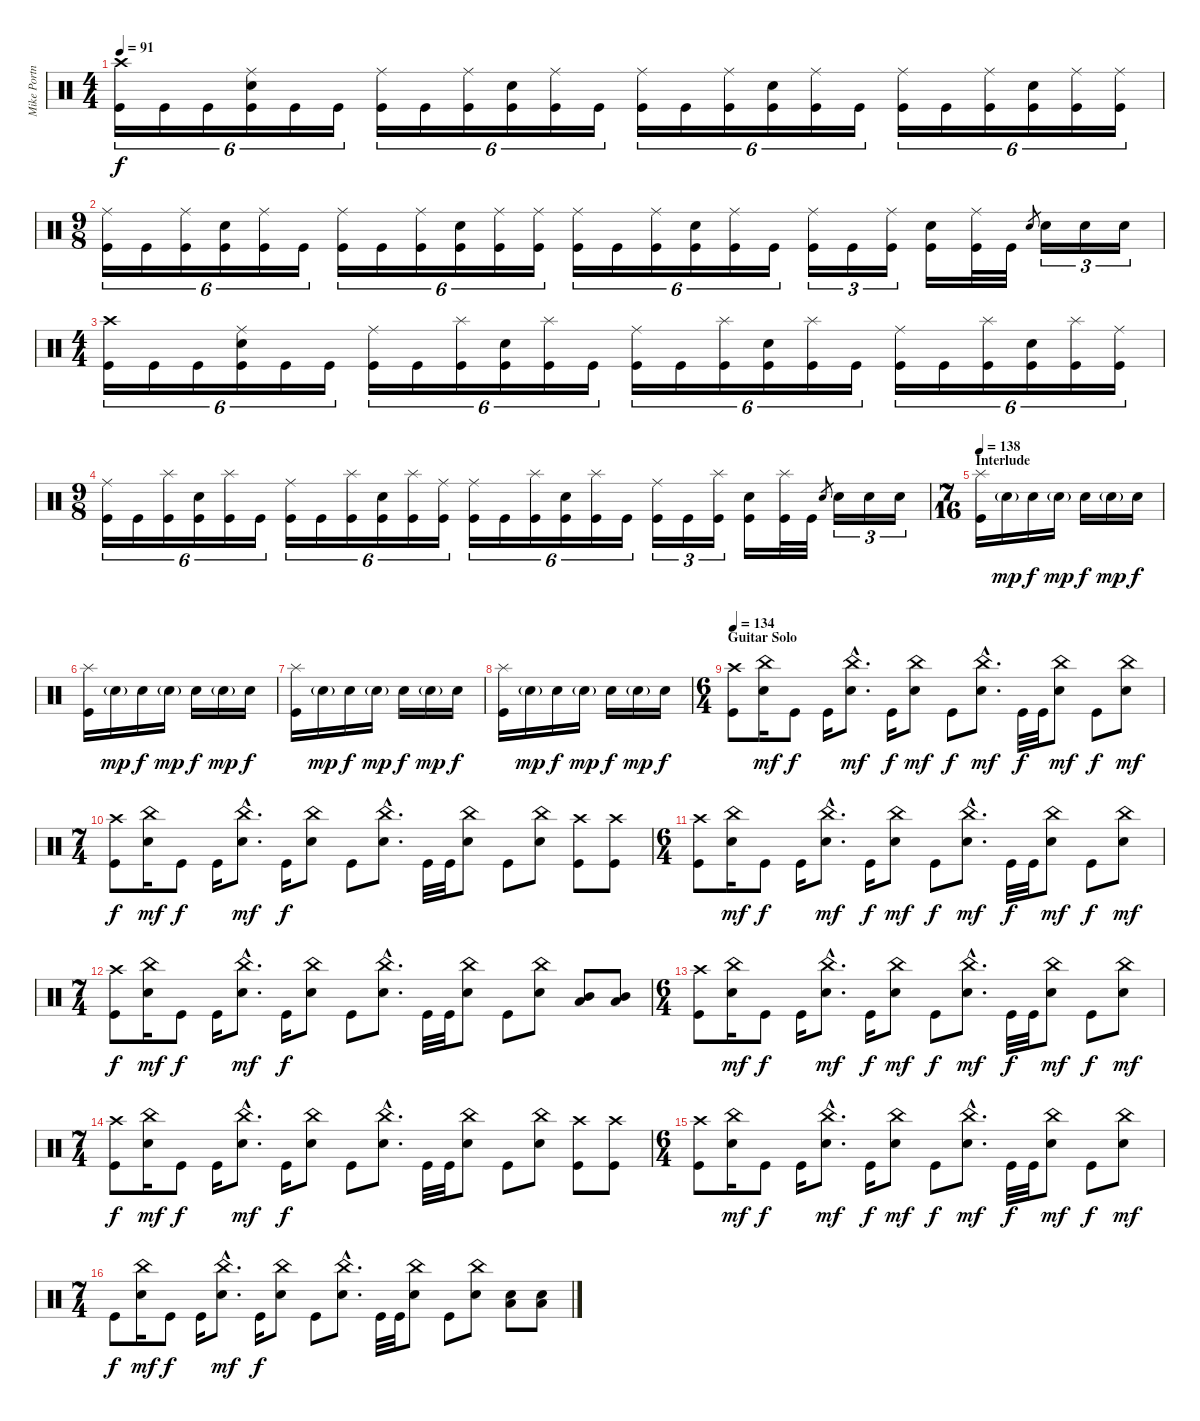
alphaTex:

\track ("Mike Portnoy" "Mike Portn") {instrument percussion}
\staff {score}
\articulation defaults
\ts (4 4)
\tempo 91
\clef neutral
\ks c
("Crash high (hit)" "Kick (hit)").16{tu (6 4) dy f} "Kick (hit)".16{tu (6 4)} "Kick (hit)".16{tu (6 4)} ("Ride (middle)" "Electric Snare (hit)" "Kick (hit)").16{tu (6 4)} "Kick (hit)".16{tu (6 4)} "Kick (hit)".16{tu (6 4)} ("Ride (middle)" "Kick (hit)").16{tu (6 4)} "Kick (hit)".16{tu (6 4)} ("Ride (middle)" "Kick (hit)").16{tu (6 4)} ("Electric Snare (hit)" "Kick (hit)").16{tu (6 4)} ("Ride (middle)" "Kick (hit)").16{tu (6 4)} "Kick (hit)".16{tu (6 4)} ("Ride (middle)" "Kick (hit)").16{tu (6 4)} "Kick (hit)".16{tu (6 4)} ("Ride (middle)" "Kick (hit)").16{tu (6 4)} ("Electric Snare (hit)" "Kick (hit)").16{tu (6 4)} ("Ride (middle)" "Kick (hit)").16{tu (6 4)} "Kick (hit)".16{tu (6 4)} ("Ride (middle)" "Kick (hit)").16{tu (6 4)} "Kick (hit)".16{tu (6 4)} ("Ride (middle)" "Kick (hit)").16{tu (6 4)} ("Electric Snare (hit)" "Kick (hit)").16{tu (6 4)} ("Ride (middle)" "Kick (hit)").16{tu (6 4)} ("Ride (middle)" "Kick (hit)").16{tu (6 4)} |
\ts (9 8)
("Ride (middle)" "Kick (hit)").16{tu (6 4)} "Kick (hit)".16{tu (6 4)} ("Ride (middle)" "Kick (hit)").16{tu (6 4)} ("Electric Snare (hit)" "Kick (hit)").16{tu (6 4)} ("Ride (middle)" "Kick (hit)").16{tu (6 4)} "Kick (hit)".16{tu (6 4)} ("Ride (middle)" "Kick (hit)").16{tu (6 4)} "Kick (hit)".16{tu (6 4)} ("Ride (middle)" "Kick (hit)").16{tu (6 4)} ("Electric Snare (hit)" "Kick (hit)").16{tu (6 4)} ("Ride (middle)" "Kick (hit)").16{tu (6 4)} ("Ride (middle)" "Kick (hit)").16{tu (6 4)} ("Ride (middle)" "Kick (hit)").16{tu (6 4)} "Kick (hit)".16{tu (6 4)} ("Ride (middle)" "Kick (hit)").16{tu (6 4)} ("Electric Snare (hit)" "Kick (hit)").16{tu (6 4)} ("Ride (middle)" "Kick (hit)").16{tu (6 4)} "Kick (hit)".16{tu (6 4)} ("Ride (middle)" "Kick (hit)").16{tu (3 2)} "Kick (hit)".16{tu (3 2)} ("Ride (middle)" "Kick (hit)").16{tu (3 2)} ("Electric Snare (hit)" "Kick (hit)").16 ("Ride (middle)" "Kick (hit)").32 "Kick (hit)".32 "Electric Snare (hit)".8{gr} "Electric Snare (hit)".16{tu (3 2)} "Electric Snare (hit)".16{tu (3 2)} "Electric Snare (hit)".16{tu (3 2)} |
\ts (4 4)
("Crash high (hit)" "Kick (hit)").16{tu (6 4)} "Kick (hit)".16{tu (6 4)} "Kick (hit)".16{tu (6 4)} ("Ride (middle)" "Electric Snare (hit)" "Kick (hit)").16{tu (6 4)} "Kick (hit)".16{tu (6 4)} "Kick (hit)".16{tu (6 4)} ("Ride (middle)" "Kick (hit)").16{tu (6 4)} "Kick (hit)".16{tu (6 4)} ("Splash (hit)" "Kick (hit)").16{tu (6 4)} ("Electric Snare (hit)" "Kick (hit)").16{tu (6 4)} ("Splash (hit)" "Kick (hit)").16{tu (6 4)} "Kick (hit)".16{tu (6 4)} ("Ride (middle)" "Kick (hit)").16{tu (6 4)} "Kick (hit)".16{tu (6 4)} ("Splash (hit)" "Kick (hit)").16{tu (6 4)} ("Electric Snare (hit)" "Kick (hit)").16{tu (6 4)} ("Splash (hit)" "Kick (hit)").16{tu (6 4)} "Kick (hit)".16{tu (6 4)} ("Ride (middle)" "Kick (hit)").16{tu (6 4)} "Kick (hit)".16{tu (6 4)} ("Splash (hit)" "Kick (hit)").16{tu (6 4)} ("Electric Snare (hit)" "Kick (hit)").16{tu (6 4)} ("Splash (hit)" "Kick (hit)").16{tu (6 4)} ("Ride (middle)" "Kick (hit)").16{tu (6 4)} |
\ts (9 8)
("Ride (middle)" "Kick (hit)").16{tu (6 4)} "Kick (hit)".16{tu (6 4)} ("Splash (hit)" "Kick (hit)").16{tu (6 4)} ("Electric Snare (hit)" "Kick (hit)").16{tu (6 4)} ("Splash (hit)" "Kick (hit)").16{tu (6 4)} "Kick (hit)".16{tu (6 4)} ("Ride (middle)" "Kick (hit)").16{tu (6 4)} "Kick (hit)".16{tu (6 4)} ("Splash (hit)" "Kick (hit)").16{tu (6 4)} ("Electric Snare (hit)" "Kick (hit)").16{tu (6 4)} ("Splash (hit)" "Kick (hit)").16{tu (6 4)} ("Ride (middle)" "Kick (hit)").16{tu (6 4)} ("Ride (middle)" "Kick (hit)").16{tu (6 4)} "Kick (hit)".16{tu (6 4)} ("Splash (hit)" "Kick (hit)").16{tu (6 4)} ("Electric Snare (hit)" "Kick (hit)").16{tu (6 4)} ("Splash (hit)" "Kick (hit)").16{tu (6 4)} "Kick (hit)".16{tu (6 4)} ("Ride (middle)" "Kick (hit)").16{tu (3 2)} "Kick (hit)".16{tu (3 2)} ("Splash (hit)" "Kick (hit)").16{tu (3 2)} ("Electric Snare (hit)" "Kick (hit)").16 ("Splash (hit)" "Kick (hit)").32 "Kick (hit)".32 "Electric Snare (hit)".8{gr} "Electric Snare (hit)".16{tu (3 2)} "Electric Snare (hit)".16{tu (3 2)} "Electric Snare (hit)".16{tu (3 2)} |
\ts (7 16)
\section ("" "Interlude")
\tempo 138
("Splash (hit)" "Kick (hit)").16 "Electric Snare (hit)"{g}.16{dy mp} "Electric Snare (hit)".16{dy f} "Electric Snare (hit)"{g}.16{dy mp} "Electric Snare (hit)".16{dy f} "Electric Snare (hit)"{g}.16{dy mp} "Electric Snare (hit)".16{dy f} |
("Splash (hit)" "Kick (hit)").16 "Electric Snare (hit)"{g}.16{dy mp} "Electric Snare (hit)".16{dy f} "Electric Snare (hit)"{g}.16{dy mp} "Electric Snare (hit)".16{dy f} "Electric Snare (hit)"{g}.16{dy mp} "Electric Snare (hit)".16{dy f} |
("Splash (hit)" "Kick (hit)").16 "Electric Snare (hit)"{g}.16{dy mp} "Electric Snare (hit)".16{dy f} "Electric Snare (hit)"{g}.16{dy mp} "Electric Snare (hit)".16{dy f} "Electric Snare (hit)"{g}.16{dy mp} "Electric Snare (hit)".16{dy f} |
("Splash (hit)" "Kick (hit)").16 "Electric Snare (hit)"{g}.16{dy mp} "Electric Snare (hit)".16{dy f} "Electric Snare (hit)"{g}.16{dy mp} "Electric Snare (hit)".16{dy f} "Electric Snare (hit)"{g}.16{dy mp} "Electric Snare (hit)".16{dy f} |
\ts (6 4)
\section ("" "Guitar Solo")
\tempo 134
("Crash high (hit)" "Kick (hit)").8 ("China (hit)" "Electric Snare (hit)").16{dy mf} "Kick (hit)".8{dy f} "Kick (hit)".16 ("China (hit)"{hac} "Electric Snare (hit)"{hac}).8{d dy mf} "Kick (hit)".16{dy f} ("China (hit)" "Electric Snare (hit)").8{dy mf} "Kick (hit)".8{dy f} ("China (hit)"{hac} "Electric Snare (hit)"{hac}).8{d dy mf} "Kick (hit)".32{dy f} "Kick (hit)".32 ("China (hit)" "Electric Snare (hit)").8{dy mf} "Kick (hit)".8{dy f} ("China (hit)" "Electric Snare (hit)").8{dy mf} |
\ts (7 4)
("Crash high (hit)" "Kick (hit)").8{dy f} ("China (hit)" "Electric Snare (hit)").16{dy mf} "Kick (hit)".8{dy f} "Kick (hit)".16 ("China (hit)"{hac} "Electric Snare (hit)"{hac}).8{d dy mf} "Kick (hit)".16{dy f} ("China (hit)" "Electric Snare (hit)").8 "Kick (hit)".8 ("China (hit)"{hac} "Electric Snare (hit)"{hac}).8{d} "Kick (hit)".32 "Kick (hit)".32 ("China (hit)" "Electric Snare (hit)").8 "Kick (hit)".8 ("China (hit)" "Electric Snare (hit)").8 ("Crash high (hit)" "Kick (hit)").8 ("Crash high (hit)" "Kick (hit)").8 |
\ts (6 4)
("Crash high (hit)" "Kick (hit)").8 ("China (hit)" "Electric Snare (hit)").16{dy mf} "Kick (hit)".8{dy f} "Kick (hit)".16 ("China (hit)"{hac} "Electric Snare (hit)"{hac}).8{d dy mf} "Kick (hit)".16{dy f} ("China (hit)" "Electric Snare (hit)").8{dy mf} "Kick (hit)".8{dy f} ("China (hit)"{hac} "Electric Snare (hit)"{hac}).8{d dy mf} "Kick (hit)".32{dy f} "Kick (hit)".32 ("China (hit)" "Electric Snare (hit)").8{dy mf} "Kick (hit)".8{dy f} ("China (hit)" "Electric Snare (hit)").8{dy mf} |
\ts (7 4)
("Crash high (hit)" "Kick (hit)").8{dy f} ("China (hit)" "Electric Snare (hit)").16{dy mf} "Kick (hit)".8{dy f} "Kick (hit)".16 ("China (hit)"{hac} "Electric Snare (hit)"{hac}).8{d dy mf} "Kick (hit)".16{dy f} ("China (hit)" "Electric Snare (hit)").8 "Kick (hit)".8 ("China (hit)"{hac} "Electric Snare (hit)"{hac}).8{d} "Kick (hit)".32 "Kick (hit)".32 ("China (hit)" "Electric Snare (hit)").8 "Kick (hit)".8 ("China (hit)" "Electric Snare (hit)").8 ("Mid Tom (hit)" "Low Tom (hit)").8 ("Mid Tom (hit)" "Low Tom (hit)").8 |
\ts (6 4)
("Crash high (hit)" "Kick (hit)").8 ("China (hit)" "Electric Snare (hit)").16{dy mf} "Kick (hit)".8{dy f} "Kick (hit)".16 ("China (hit)"{hac} "Electric Snare (hit)"{hac}).8{d dy mf} "Kick (hit)".16{dy f} ("China (hit)" "Electric Snare (hit)").8{dy mf} "Kick (hit)".8{dy f} ("China (hit)"{hac} "Electric Snare (hit)"{hac}).8{d dy mf} "Kick (hit)".32{dy f} "Kick (hit)".32 ("China (hit)" "Electric Snare (hit)").8{dy mf} "Kick (hit)".8{dy f} ("China (hit)" "Electric Snare (hit)").8{dy mf} |
\ts (7 4)
("Crash high (hit)" "Kick (hit)").8{dy f} ("China (hit)" "Electric Snare (hit)").16{dy mf} "Kick (hit)".8{dy f} "Kick (hit)".16 ("China (hit)"{hac} "Electric Snare (hit)"{hac}).8{d dy mf} "Kick (hit)".16{dy f} ("China (hit)" "Electric Snare (hit)").8 "Kick (hit)".8 ("China (hit)"{hac} "Electric Snare (hit)"{hac}).8{d} "Kick (hit)".32 "Kick (hit)".32 ("China (hit)" "Electric Snare (hit)").8 "Kick (hit)".8 ("China (hit)" "Electric Snare (hit)").8 ("Crash high (hit)" "Kick (hit)").8 ("Crash high (hit)" "Kick (hit)").8 |
\ts (6 4)
("Crash high (hit)" "Kick (hit)").8 ("China (hit)" "Electric Snare (hit)").16{dy mf} "Kick (hit)".8{dy f} "Kick (hit)".16 ("China (hit)"{hac} "Electric Snare (hit)"{hac}).8{d dy mf} "Kick (hit)".16{dy f} ("China (hit)" "Electric Snare (hit)").8{dy mf} "Kick (hit)".8{dy f} ("China (hit)"{hac} "Electric Snare (hit)"{hac}).8{d dy mf} "Kick (hit)".32{dy f} "Kick (hit)".32 ("China (hit)" "Electric Snare (hit)").8{dy mf} "Kick (hit)".8{dy f} ("China (hit)" "Electric Snare (hit)").8{dy mf} |
\ts (7 4)
"Kick (hit)".8{dy f} ("China (hit)" "Electric Snare (hit)").16{dy mf} "Kick (hit)".8{dy f} "Kick (hit)".16 ("China (hit)"{hac} "Electric Snare (hit)"{hac}).8{d dy mf} "Kick (hit)".16{dy f} ("China (hit)" "Electric Snare (hit)").8 "Kick (hit)".8 ("China (hit)"{hac} "Electric Snare (hit)"{hac}).8{d} "Kick (hit)".32 "Kick (hit)".32 ("China (hit)" "Electric Snare (hit)").8 "Kick (hit)".8 ("China (hit)" "Electric Snare (hit)").8 ("Electric Snare (hit)" "Low Tom (hit)").8 ("Electric Snare (hit)" "Low Tom (hit)").8
